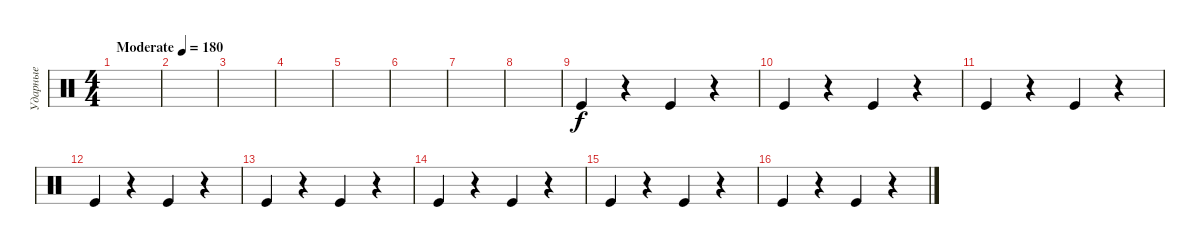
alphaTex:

\track ("Ударные" "Ударные") {instrument percussion}
\staff {score}
\articulation defaults
\ts (4 4)
\tempo (180 "Moderate")
\clef neutral
\ks c
|
|
|
|
|
|
|
|
"Kick (hit)".4 r.4 "Kick (hit)".4 r.4 |
"Kick (hit)".4 r.4 "Kick (hit)".4 r.4 |
"Kick (hit)".4 r.4 "Kick (hit)".4 r.4 |
"Kick (hit)".4 r.4 "Kick (hit)".4 r.4 |
"Kick (hit)".4 r.4 "Kick (hit)".4 r.4 |
"Kick (hit)".4 r.4 "Kick (hit)".4 r.4 |
"Kick (hit)".4 r.4 "Kick (hit)".4 r.4 |
"Kick (hit)".4 r.4 "Kick (hit)".4 r.4
